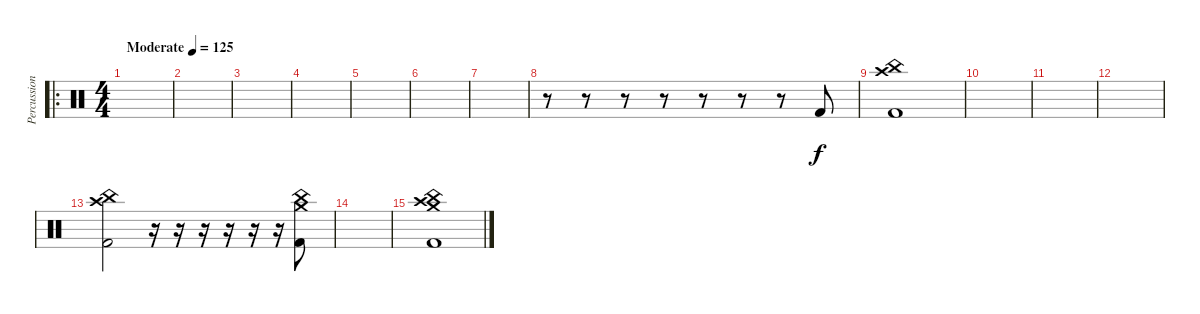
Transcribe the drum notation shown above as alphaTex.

\track ("Percussion" "Percussion") {instrument percussion}
\staff {score}
\articulation defaults
\ro
\ts (4 4)
\tempo (125 "Moderate")
\clef neutral
\ks c
|
|
|
|
|
|
|
r.8 r.8 r.8 r.8 r.8 r.8 r.8 "Kick (hit) 2".8 |
("Crash high (hit)" "China (hit)" "Kick (hit) 2").1 |
|
|
|
("Crash high (hit)" "China (hit)" "Kick (hit) 2").2 r.16 r.16 r.16 r.16 r.16 r.16 ("Crash medium (hit)" "China (hit)" "Kick (hit) 2").8 |
|
("Crash high (hit)" "Crash medium (hit)" "China (hit)" "Kick (hit) 2").1
